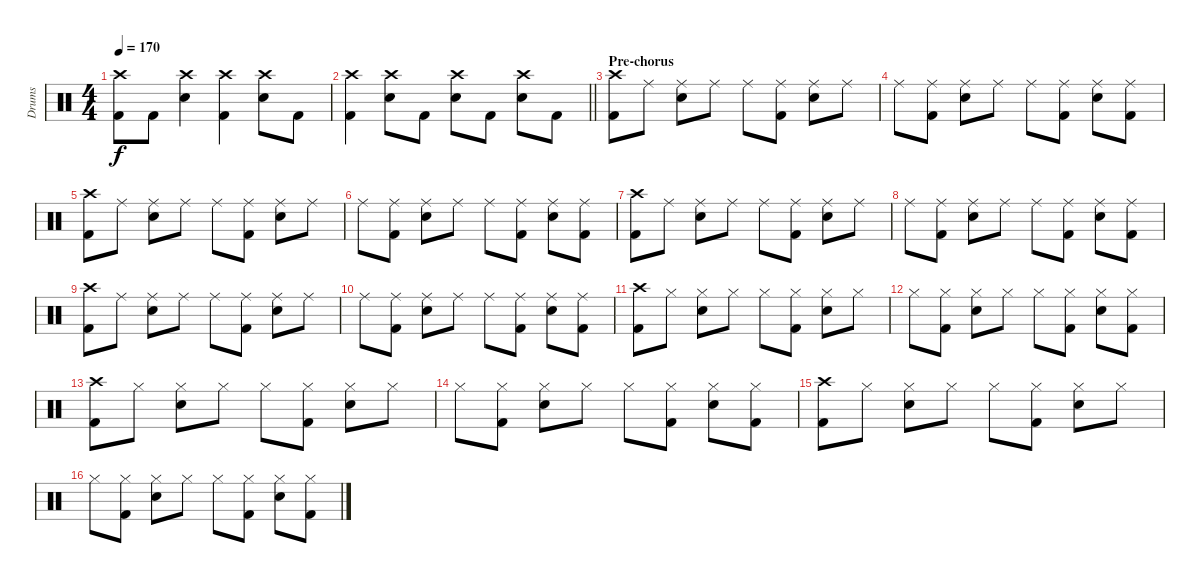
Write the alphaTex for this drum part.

\track ("Drums" "Drums") {instrument percussion}
\staff {score}
\articulation defaults
\ts (4 4)
\tempo 170
\clef neutral
\ks c
("Crash high (hit)" "Kick (hit) 2").8{dy f} "Kick (hit) 2".8 ("Crash high (hit)" "Snare (hit) 2").4 ("Crash high (hit)" "Kick (hit) 2").4 ("Crash high (hit)" "Snare (hit) 2").8 "Kick (hit) 2".8 |
\barLineRight lightlight
("Crash high (hit)" "Kick (hit) 2").4 ("Crash high (hit)" "Snare (hit) 2").8 "Kick (hit) 2".8 ("Crash high (hit)" "Snare (hit) 2").8 "Kick (hit) 2".8 ("Crash high (hit)" "Snare (hit) 2").8 "Kick (hit) 2".8 |
\section ("" "Pre-chorus")
("Crash high (hit)" "Kick (hit) 2").8 "Ride (middle)".8 ("Ride (middle)" "Snare (hit) 2").8 "Ride (middle)".8 "Ride (middle)".8 ("Ride (middle)" "Kick (hit) 2").8 ("Ride (middle)" "Snare (hit) 2").8 "Ride (middle)".8 |
"Ride (middle)".8 ("Ride (middle)" "Kick (hit) 2").8 ("Ride (middle)" "Snare (hit) 2").8 "Ride (middle)".8 "Ride (middle)".8 ("Ride (middle)" "Kick (hit) 2").8 ("Ride (middle)" "Snare (hit) 2").8 ("Ride (middle)" "Kick (hit) 2").8 |
("Crash high (hit)" "Kick (hit) 2").8 "Ride (middle)".8 ("Ride (middle)" "Snare (hit) 2").8 "Ride (middle)".8 "Ride (middle)".8 ("Ride (middle)" "Kick (hit) 2").8 ("Ride (middle)" "Snare (hit) 2").8 "Ride (middle)".8 |
"Ride (middle)".8 ("Ride (middle)" "Kick (hit) 2").8 ("Ride (middle)" "Snare (hit) 2").8 "Ride (middle)".8 "Ride (middle)".8 ("Ride (middle)" "Kick (hit) 2").8 ("Ride (middle)" "Snare (hit) 2").8 ("Ride (middle)" "Kick (hit) 2").8 |
("Crash high (hit)" "Kick (hit) 2").8 "Ride (middle)".8 ("Ride (middle)" "Snare (hit) 2").8 "Ride (middle)".8 "Ride (middle)".8 ("Ride (middle)" "Kick (hit) 2").8 ("Ride (middle)" "Snare (hit) 2").8 "Ride (middle)".8 |
"Ride (middle)".8 ("Ride (middle)" "Kick (hit) 2").8 ("Ride (middle)" "Snare (hit) 2").8 "Ride (middle)".8 "Ride (middle)".8 ("Ride (middle)" "Kick (hit) 2").8 ("Ride (middle)" "Snare (hit) 2").8 ("Ride (middle)" "Kick (hit) 2").8 |
("Crash high (hit)" "Kick (hit) 2").8 "Ride (middle)".8 ("Ride (middle)" "Snare (hit) 2").8 "Ride (middle)".8 "Ride (middle)".8 ("Ride (middle)" "Kick (hit) 2").8 ("Ride (middle)" "Snare (hit) 2").8 "Ride (middle)".8 |
"Ride (middle)".8 ("Ride (middle)" "Kick (hit) 2").8 ("Ride (middle)" "Snare (hit) 2").8 "Ride (middle)".8 "Ride (middle)".8 ("Ride (middle)" "Kick (hit) 2").8 ("Ride (middle)" "Snare (hit) 2").8 ("Ride (middle)" "Kick (hit) 2").8 |
("Crash high (hit)" "Kick (hit) 2").8 "Hi-Hat (closed)".8 ("Hi-Hat (closed)" "Snare (hit) 2").8 "Hi-Hat (closed)".8 "Hi-Hat (closed)".8 ("Hi-Hat (closed)" "Kick (hit) 2").8 ("Hi-Hat (closed)" "Snare (hit) 2").8 "Hi-Hat (closed)".8 |
"Hi-Hat (closed)".8 ("Hi-Hat (closed)" "Kick (hit) 2").8 ("Hi-Hat (closed)" "Snare (hit) 2").8 "Hi-Hat (closed)".8 "Hi-Hat (closed)".8 ("Hi-Hat (closed)" "Kick (hit) 2").8 ("Hi-Hat (closed)" "Snare (hit) 2").8 ("Hi-Hat (closed)" "Kick (hit) 2").8 |
("Crash high (hit)" "Kick (hit) 2").8 "Hi-Hat (closed)".8 ("Hi-Hat (closed)" "Snare (hit) 2").8 "Hi-Hat (closed)".8 "Hi-Hat (closed)".8 ("Hi-Hat (closed)" "Kick (hit) 2").8 ("Hi-Hat (closed)" "Snare (hit) 2").8 "Hi-Hat (closed)".8 |
"Hi-Hat (closed)".8 ("Hi-Hat (closed)" "Kick (hit) 2").8 ("Hi-Hat (closed)" "Snare (hit) 2").8 "Hi-Hat (closed)".8 "Hi-Hat (closed)".8 ("Hi-Hat (closed)" "Kick (hit) 2").8 ("Hi-Hat (closed)" "Snare (hit) 2").8 ("Hi-Hat (closed)" "Kick (hit) 2").8 |
("Crash high (hit)" "Kick (hit) 2").8 "Hi-Hat (closed)".8 ("Hi-Hat (closed)" "Snare (hit) 2").8 "Hi-Hat (closed)".8 "Hi-Hat (closed)".8 ("Hi-Hat (closed)" "Kick (hit) 2").8 ("Hi-Hat (closed)" "Snare (hit) 2").8 "Hi-Hat (closed)".8 |
"Hi-Hat (closed)".8 ("Hi-Hat (closed)" "Kick (hit) 2").8 ("Hi-Hat (closed)" "Snare (hit) 2").8 "Hi-Hat (closed)".8 "Hi-Hat (closed)".8 ("Hi-Hat (closed)" "Kick (hit) 2").8 ("Hi-Hat (closed)" "Snare (hit) 2").8 ("Hi-Hat (closed)" "Kick (hit) 2").8
